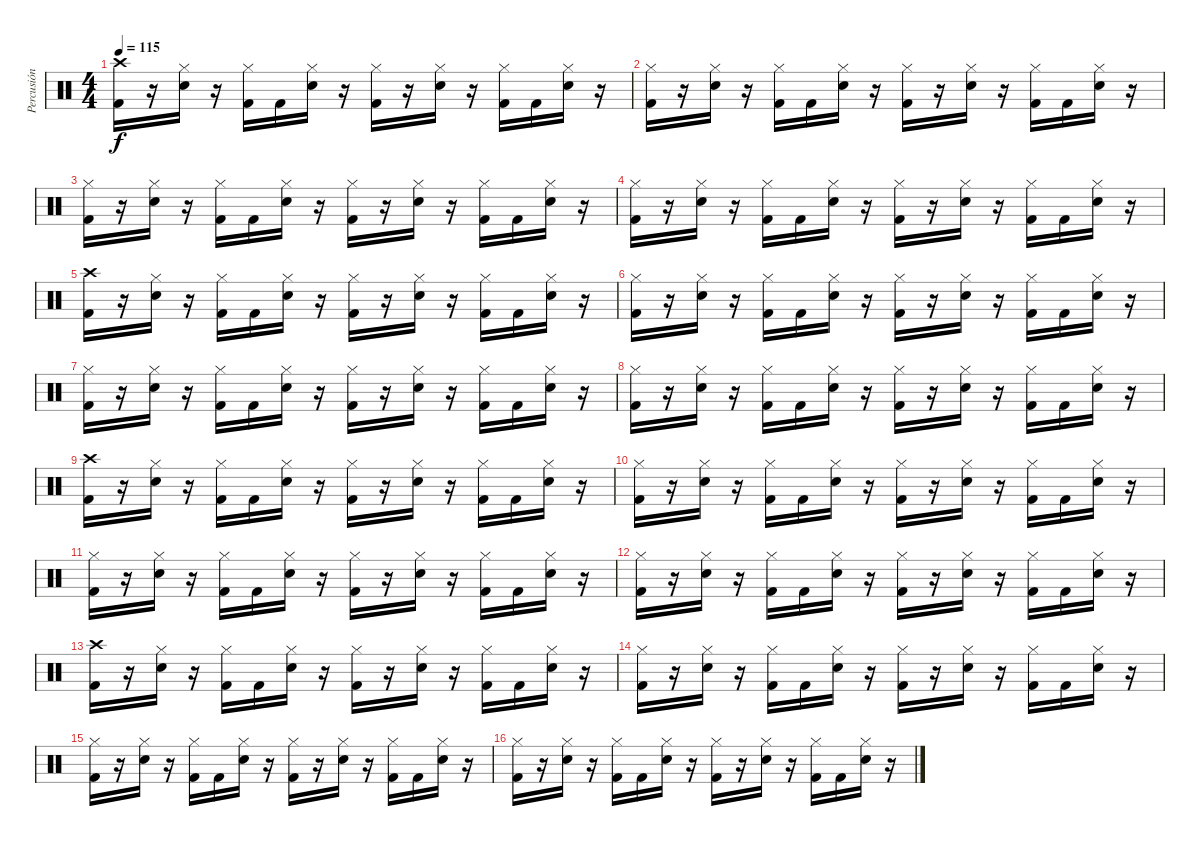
\track ("Percusión" "Percusión") {instrument percussion}
\staff {score}
\articulation defaults
\ts (4 4)
\tempo 115
\clef neutral
\ks c
("Crash high (hit)" "Kick (hit) 2").16{dy f} r.16 ("Hi-Hat (closed)" "Electric Snare (hit)").16 r.16 ("Hi-Hat (closed)" "Kick (hit) 2").16 "Kick (hit) 2".16 ("Hi-Hat (closed)" "Electric Snare (hit)").16 r.16 ("Hi-Hat (closed)" "Kick (hit) 2").16 r.16 ("Hi-Hat (closed)" "Electric Snare (hit)").16 r.16 ("Hi-Hat (closed)" "Kick (hit) 2").16 "Kick (hit) 2".16 ("Hi-Hat (closed)" "Electric Snare (hit)").16 r.16 |
("Hi-Hat (closed)" "Kick (hit) 2").16 r.16 ("Hi-Hat (closed)" "Electric Snare (hit)").16 r.16 ("Hi-Hat (closed)" "Kick (hit) 2").16 "Kick (hit) 2".16 ("Hi-Hat (closed)" "Electric Snare (hit)").16 r.16 ("Hi-Hat (closed)" "Kick (hit) 2").16 r.16 ("Hi-Hat (closed)" "Electric Snare (hit)").16 r.16 ("Hi-Hat (closed)" "Kick (hit) 2").16 "Kick (hit) 2".16 ("Hi-Hat (closed)" "Electric Snare (hit)").16 r.16 |
("Hi-Hat (closed)" "Kick (hit) 2").16 r.16 ("Hi-Hat (closed)" "Electric Snare (hit)").16 r.16 ("Hi-Hat (closed)" "Kick (hit) 2").16 "Kick (hit) 2".16 ("Hi-Hat (closed)" "Electric Snare (hit)").16 r.16 ("Hi-Hat (closed)" "Kick (hit) 2").16 r.16 ("Hi-Hat (closed)" "Electric Snare (hit)").16 r.16 ("Hi-Hat (closed)" "Kick (hit) 2").16 "Kick (hit) 2".16 ("Hi-Hat (closed)" "Electric Snare (hit)").16 r.16 |
("Hi-Hat (closed)" "Kick (hit) 2").16 r.16 ("Hi-Hat (closed)" "Electric Snare (hit)").16 r.16 ("Hi-Hat (closed)" "Kick (hit) 2").16 "Kick (hit) 2".16 ("Hi-Hat (closed)" "Electric Snare (hit)").16 r.16 ("Hi-Hat (closed)" "Kick (hit) 2").16 r.16 ("Hi-Hat (closed)" "Electric Snare (hit)").16 r.16 ("Hi-Hat (closed)" "Kick (hit) 2").16 "Kick (hit) 2".16 ("Hi-Hat (closed)" "Electric Snare (hit)").16 r.16 |
("Crash high (hit)" "Kick (hit) 2").16 r.16 ("Hi-Hat (closed)" "Electric Snare (hit)").16 r.16 ("Hi-Hat (closed)" "Kick (hit) 2").16 "Kick (hit) 2".16 ("Hi-Hat (closed)" "Electric Snare (hit)").16 r.16 ("Hi-Hat (closed)" "Kick (hit) 2").16 r.16 ("Hi-Hat (closed)" "Electric Snare (hit)").16 r.16 ("Hi-Hat (closed)" "Kick (hit) 2").16 "Kick (hit) 2".16 ("Hi-Hat (closed)" "Electric Snare (hit)").16 r.16 |
("Hi-Hat (closed)" "Kick (hit) 2").16 r.16 ("Hi-Hat (closed)" "Electric Snare (hit)").16 r.16 ("Hi-Hat (closed)" "Kick (hit) 2").16 "Kick (hit) 2".16 ("Hi-Hat (closed)" "Electric Snare (hit)").16 r.16 ("Hi-Hat (closed)" "Kick (hit) 2").16 r.16 ("Hi-Hat (closed)" "Electric Snare (hit)").16 r.16 ("Hi-Hat (closed)" "Kick (hit) 2").16 "Kick (hit) 2".16 ("Hi-Hat (closed)" "Electric Snare (hit)").16 r.16 |
("Hi-Hat (closed)" "Kick (hit) 2").16 r.16 ("Hi-Hat (closed)" "Electric Snare (hit)").16 r.16 ("Hi-Hat (closed)" "Kick (hit) 2").16 "Kick (hit) 2".16 ("Hi-Hat (closed)" "Electric Snare (hit)").16 r.16 ("Hi-Hat (closed)" "Kick (hit) 2").16 r.16 ("Hi-Hat (closed)" "Electric Snare (hit)").16 r.16 ("Hi-Hat (closed)" "Kick (hit) 2").16 "Kick (hit) 2".16 ("Hi-Hat (closed)" "Electric Snare (hit)").16 r.16 |
("Hi-Hat (closed)" "Kick (hit) 2").16 r.16 ("Hi-Hat (closed)" "Electric Snare (hit)").16 r.16 ("Hi-Hat (closed)" "Kick (hit) 2").16 "Kick (hit) 2".16 ("Hi-Hat (closed)" "Electric Snare (hit)").16 r.16 ("Hi-Hat (closed)" "Kick (hit) 2").16 r.16 ("Hi-Hat (closed)" "Electric Snare (hit)").16 r.16 ("Hi-Hat (closed)" "Kick (hit) 2").16 "Kick (hit) 2".16 ("Hi-Hat (closed)" "Electric Snare (hit)").16 r.16 |
("Crash high (hit)" "Kick (hit) 2").16 r.16 ("Hi-Hat (closed)" "Electric Snare (hit)").16 r.16 ("Hi-Hat (closed)" "Kick (hit) 2").16 "Kick (hit) 2".16 ("Hi-Hat (closed)" "Electric Snare (hit)").16 r.16 ("Hi-Hat (closed)" "Kick (hit) 2").16 r.16 ("Hi-Hat (closed)" "Electric Snare (hit)").16 r.16 ("Hi-Hat (closed)" "Kick (hit) 2").16 "Kick (hit) 2".16 ("Hi-Hat (closed)" "Electric Snare (hit)").16 r.16 |
("Hi-Hat (closed)" "Kick (hit) 2").16 r.16 ("Hi-Hat (closed)" "Electric Snare (hit)").16 r.16 ("Hi-Hat (closed)" "Kick (hit) 2").16 "Kick (hit) 2".16 ("Hi-Hat (closed)" "Electric Snare (hit)").16 r.16 ("Hi-Hat (closed)" "Kick (hit) 2").16 r.16 ("Hi-Hat (closed)" "Electric Snare (hit)").16 r.16 ("Hi-Hat (closed)" "Kick (hit) 2").16 "Kick (hit) 2".16 ("Hi-Hat (closed)" "Electric Snare (hit)").16 r.16 |
("Hi-Hat (closed)" "Kick (hit) 2").16 r.16 ("Hi-Hat (closed)" "Electric Snare (hit)").16 r.16 ("Hi-Hat (closed)" "Kick (hit) 2").16 "Kick (hit) 2".16 ("Hi-Hat (closed)" "Electric Snare (hit)").16 r.16 ("Hi-Hat (closed)" "Kick (hit) 2").16 r.16 ("Hi-Hat (closed)" "Electric Snare (hit)").16 r.16 ("Hi-Hat (closed)" "Kick (hit) 2").16 "Kick (hit) 2".16 ("Hi-Hat (closed)" "Electric Snare (hit)").16 r.16 |
("Hi-Hat (closed)" "Kick (hit) 2").16 r.16 ("Hi-Hat (closed)" "Electric Snare (hit)").16 r.16 ("Hi-Hat (closed)" "Kick (hit) 2").16 "Kick (hit) 2".16 ("Hi-Hat (closed)" "Electric Snare (hit)").16 r.16 ("Hi-Hat (closed)" "Kick (hit) 2").16 r.16 ("Hi-Hat (closed)" "Electric Snare (hit)").16 r.16 ("Hi-Hat (closed)" "Kick (hit) 2").16 "Kick (hit) 2".16 ("Hi-Hat (closed)" "Electric Snare (hit)").16 r.16 |
("Crash high (hit)" "Kick (hit) 2").16 r.16 ("Hi-Hat (closed)" "Electric Snare (hit)").16 r.16 ("Hi-Hat (closed)" "Kick (hit) 2").16 "Kick (hit) 2".16 ("Hi-Hat (closed)" "Electric Snare (hit)").16 r.16 ("Hi-Hat (closed)" "Kick (hit) 2").16 r.16 ("Hi-Hat (closed)" "Electric Snare (hit)").16 r.16 ("Hi-Hat (closed)" "Kick (hit) 2").16 "Kick (hit) 2".16 ("Hi-Hat (closed)" "Electric Snare (hit)").16 r.16 |
("Hi-Hat (closed)" "Kick (hit) 2").16 r.16 ("Hi-Hat (closed)" "Electric Snare (hit)").16 r.16 ("Hi-Hat (closed)" "Kick (hit) 2").16 "Kick (hit) 2".16 ("Hi-Hat (closed)" "Electric Snare (hit)").16 r.16 ("Hi-Hat (closed)" "Kick (hit) 2").16 r.16 ("Hi-Hat (closed)" "Electric Snare (hit)").16 r.16 ("Hi-Hat (closed)" "Kick (hit) 2").16 "Kick (hit) 2".16 ("Hi-Hat (closed)" "Electric Snare (hit)").16 r.16 |
("Hi-Hat (closed)" "Kick (hit) 2").16 r.16 ("Hi-Hat (closed)" "Electric Snare (hit)").16 r.16 ("Hi-Hat (closed)" "Kick (hit) 2").16 "Kick (hit) 2".16 ("Hi-Hat (closed)" "Electric Snare (hit)").16 r.16 ("Hi-Hat (closed)" "Kick (hit) 2").16 r.16 ("Hi-Hat (closed)" "Electric Snare (hit)").16 r.16 ("Hi-Hat (closed)" "Kick (hit) 2").16 "Kick (hit) 2".16 ("Hi-Hat (closed)" "Electric Snare (hit)").16 r.16 |
("Hi-Hat (closed)" "Kick (hit) 2").16 r.16 ("Hi-Hat (closed)" "Electric Snare (hit)").16 r.16 ("Hi-Hat (closed)" "Kick (hit) 2").16 "Kick (hit) 2".16 ("Hi-Hat (closed)" "Electric Snare (hit)").16 r.16 ("Hi-Hat (closed)" "Kick (hit) 2").16 r.16 ("Hi-Hat (closed)" "Electric Snare (hit)").16 r.16 ("Hi-Hat (closed)" "Kick (hit) 2").16 "Kick (hit) 2".16 ("Hi-Hat (closed)" "Electric Snare (hit)").16 r.16
